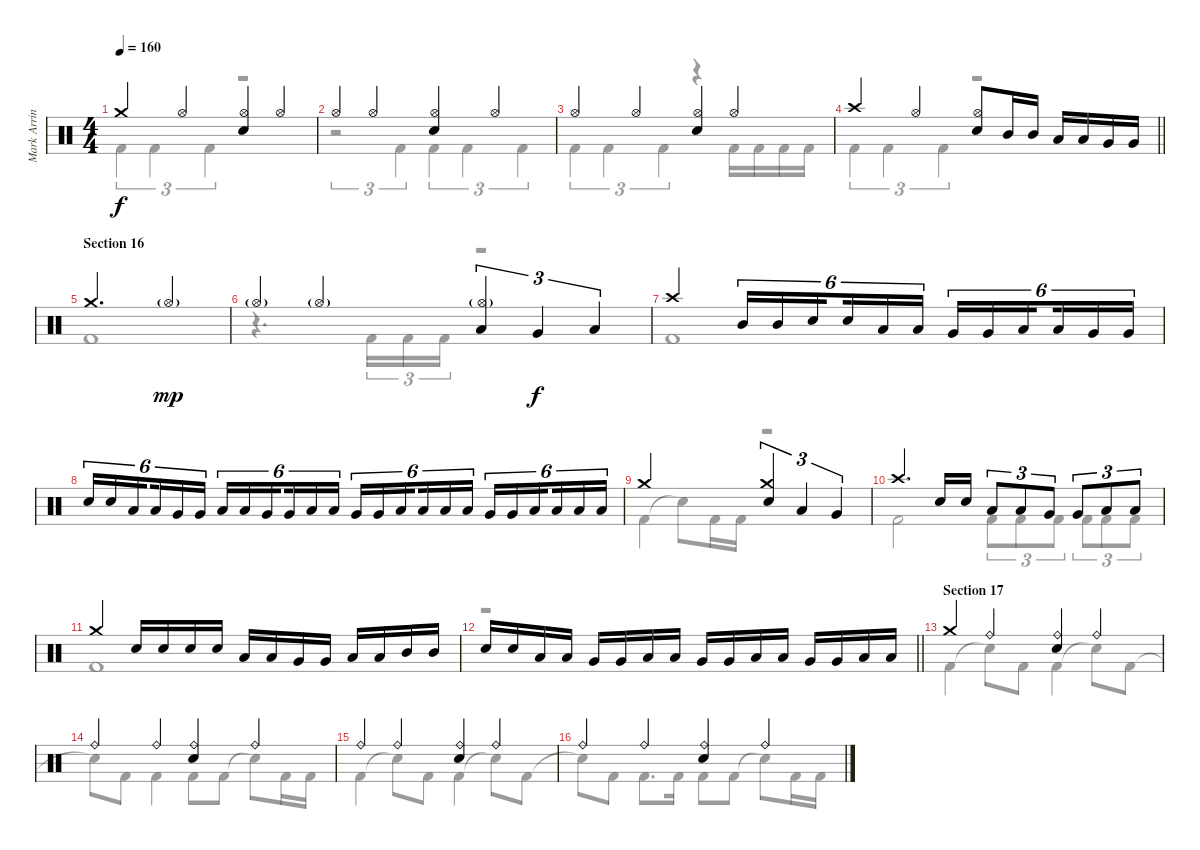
\track ("Mark Arrington – drums" "Mark Arrin") {instrument percussion}
\staff {score}
\articulation defaults
\voice
\ts (4 4)
\tempo 160
\clef neutral
\ks c "Crash medium (hit)".4{dy f} "Hi-Hat (open)".4
("Hi-Hat (open)" "Electric Snare (hit)").4 "Hi-Hat (open)".4 |
"Hi-Hat (open)".4 "Hi-Hat (open)".4 ("Hi-Hat (open)" "Electric Snare (hit)").4 "Hi-Hat (open)".4 |
"Hi-Hat (open)".4 "Hi-Hat (open)".4 ("Hi-Hat (open)" "Electric Snare (hit)").4 "Hi-Hat (open)".4 |
\barLineRight lightlight "Crash high (hit)".4 "Hi-Hat (open)".4
("Hi-Hat (open)" "Electric Snare (hit)").8 "Mid Tom (hit)".16 "Mid Tom (hit)".16 "Low Tom (hit)".16 "Low Tom (hit)".16 "Very Low Tom (hit)".16 "Very Low Tom (hit)".16 |
\section ("" "Section 16")
"Crash medium (hit)".2{d} "Hi-Hat (open)"{g}.4{dy mp} |
"Hi-Hat (open)"{g}.4 "Hi-Hat (open)"{g}.4 ("Low Tom (hit)" "Hi-Hat (open)"{g}).4{tu (3 2)} "Very Low Tom (hit)".4{tu (3 2) dy f} "Low Floor Tom (hit)".4{tu (3 2)} |
"Crash high (hit)".2 "Mid Tom (hit)".16{tu (6 4)} "Mid Tom (hit)".16{tu (6 4)} "Electric Snare (hit)".16{tu (6 4) beam splitsecondary} "Electric Snare (hit)".16{tu (6 4)} "Low Tom (hit)".16{tu (6 4)} "Low Tom (hit)".16{tu (6 4)} "Very Low Tom (hit)".16{tu (6 4)} "Very Low Tom (hit)".16{tu (6 4)} "Low Tom (hit)".16{tu (6 4) beam splitsecondary} "Low Tom (hit)".16{tu (6 4)} "Very Low Tom (hit)".16{tu (6 4)} "Very Low Tom (hit)".16{tu (6 4)} |
"Electric Snare (hit)".16{tu (6 4)} "Electric Snare (hit)".16{tu (6 4)} "Low Tom (hit)".16{tu (6 4) beam splitsecondary} "Low Tom (hit)".16{tu (6 4)} "Very Low Tom (hit)".16{tu (6 4)} "Very Low Tom (hit)".16{tu (6 4)} "Low Tom (hit)".16{tu (6 4)} "Low Tom (hit)".16{tu (6 4)} "Very Low Tom (hit)".16{tu (6 4) beam splitsecondary} "Very Low Tom (hit)".16{tu (6 4)} "Low Tom (hit)".16{tu (6 4)} "Low Tom (hit)".16{tu (6 4)} "Very Low Tom (hit)".16{tu (6 4)} "Very Low Tom (hit)".16{tu (6 4)} "Low Floor Tom (hit)".16{tu (6 4) beam splitsecondary} "Low Floor Tom (hit)".16{tu (6 4)} "Low Tom (hit)".16{tu (6 4)} "Low Tom (hit)".16{tu (6 4)} "Very Low Tom (hit)".16{tu (6 4)} "Very Low Tom (hit)".16{tu (6 4)} "Low Floor Tom (hit)".16{tu (6 4) beam splitsecondary} "Low Floor Tom (hit)".16{tu (6 4)} "Low Floor Tom (hit)".16{tu (6 4)} "Low Floor Tom (hit)".16{tu (6 4)} |
"Crash medium (hit)".2 ("Electric Snare (hit)" "Crash medium (hit)").4{tu (3 2)} "Low Tom (hit)".4{tu (3 2)} "Very Low Tom (hit)".4{tu (3 2)} |
"Crash high (hit)".4{d} "Electric Snare (hit)".16 "Electric Snare (hit)".16 "Low Tom (hit)".8{tu (3 2)} "Low Tom (hit)".8{tu (3 2)} "Very Low Tom (hit)".8{tu (3 2)} "Very Low Tom (hit)".8{tu (3 2)} "Low Floor Tom (hit)".8{tu (3 2)} "Low Floor Tom (hit)".8{tu (3 2)} |
"Crash medium (hit)".4 "Electric Snare (hit)".16 "Electric Snare (hit)".16 "Electric Snare (hit)".16 "Electric Snare (hit)".16 "Low Tom (hit)".16 "Low Tom (hit)".16 "Very Low Tom (hit)".16 "Very Low Tom (hit)".16 "Low Tom (hit)".16 "Low Tom (hit)".16 "Mid Tom (hit)".16 "Mid Tom (hit)".16 |
\barLineRight lightlight "Electric Snare (hit)".16 "Electric Snare (hit)".16 "Low Tom (hit)".16 "Low Tom (hit)".16 "Very Low Tom (hit)".16 "Very Low Tom (hit)".16 "Low Tom (hit)".16 "Low Tom (hit)".16 "Very Low Tom (hit)".16 "Very Low Tom (hit)".16 "Low Tom (hit)".16 "Low Tom (hit)".16 "Very Low Tom (hit)".16 "Very Low Tom (hit)".16 "Low Floor Tom (hit)".16 "Low Floor Tom (hit)".16
|
\section ("" "Section 17")
"Crash medium (hit)".4 "Ride (bell)".4 ("Ride (bell)" "Electric Snare (hit)").4 "Ride (bell)".4 |
"Ride (bell)".4 "Ride (bell)".4 ("Ride (bell)" "Electric Snare (hit)").4 "Ride (bell)".4 |
"Ride (bell)".4 "Ride (bell)".4 ("Ride (bell)" "Electric Snare (hit)").4 "Ride (bell)".4 |
"Ride (bell)".4 "Ride (bell)".4 ("Ride (bell)" "Electric Snare (hit)").4 "Ride (bell)".4
\voice
\clef neutral
\ottava regular
\simile none
\ks c "Kick (hit) 2".4{tu (3 2) dy f} "Kick (hit) 2".4{tu (3 2)} "Kick (hit) 2".4{tu (3 2)}
r.2 |
r.2{tu (3 2)} "Kick (hit) 2".4{tu (3 2)} "Kick (hit) 2".4{tu (3 2)} "Kick (hit) 2".4{tu (3 2)} "Kick (hit) 2".4{tu (3 2)} |
"Kick (hit) 2".4{tu (3 2)} "Kick (hit) 2".4{tu (3 2)} "Kick (hit) 2".4{tu (3 2)} r.4 "Kick (hit) 2".16 "Kick (hit) 2".16 "Kick (hit) 2".16 "Kick (hit) 2".16 |
\barLineRight lightlight "Kick (hit) 2".4{tu (3 2)} "Kick (hit) 2".4{tu (3 2)} "Kick (hit) 2".4{tu (3 2)}
r.2 |
"Kick (hit) 2".1 |
r.4{d} "Kick (hit) 2".16{tu (3 2)} "Kick (hit) 2".16{tu (3 2)} "Kick (hit) 2".16{tu (3 2)} r.2 |
"Kick (hit) 2".1 |
|
"Kick (hit) 2".4 "Snare (hit)"{t}.8 "Kick (hit) 2".16 "Kick (hit) 2".16 r.2 |
"Kick (hit) 2".2 "Kick (hit) 2".8{tu (3 2)} "Kick (hit) 2".8{tu (3 2)} "Kick (hit) 2".8{tu (3 2)} "Kick (hit) 2".8{tu (3 2)} "Kick (hit) 2".8{tu (3 2)} "Kick (hit) 2".8{tu (3 2)} |
"Kick (hit) 2".1 |
\barLineRight lightlight
r.1 |
"Kick (hit) 2".4 "Snare (hit)"{t}.8 "Kick (hit) 2".8 "Kick (hit) 2".4 "Snare (hit)"{t}.8 "Kick (hit) 2".8 |
"Snare (hit)"{t}.8 "Kick (hit) 2".8 "Kick (hit) 2".4 "Kick (hit) 2".8 "Kick (hit) 2".8 "Snare (hit)"{t}.8 "Kick (hit) 2".16 "Kick (hit) 2".16 |
"Kick (hit) 2".4 "Snare (hit)"{t}.8 "Kick (hit) 2".8 "Kick (hit) 2".4 "Snare (hit)"{t}.8 "Kick (hit) 2".8 |
"Snare (hit)"{t}.8 "Kick (hit) 2".8 "Kick (hit) 2".8{d} "Kick (hit) 2".16 "Kick (hit) 2".8 "Kick (hit) 2".8 "Snare (hit)"{t}.8 "Kick (hit) 2".16 "Kick (hit) 2".16
